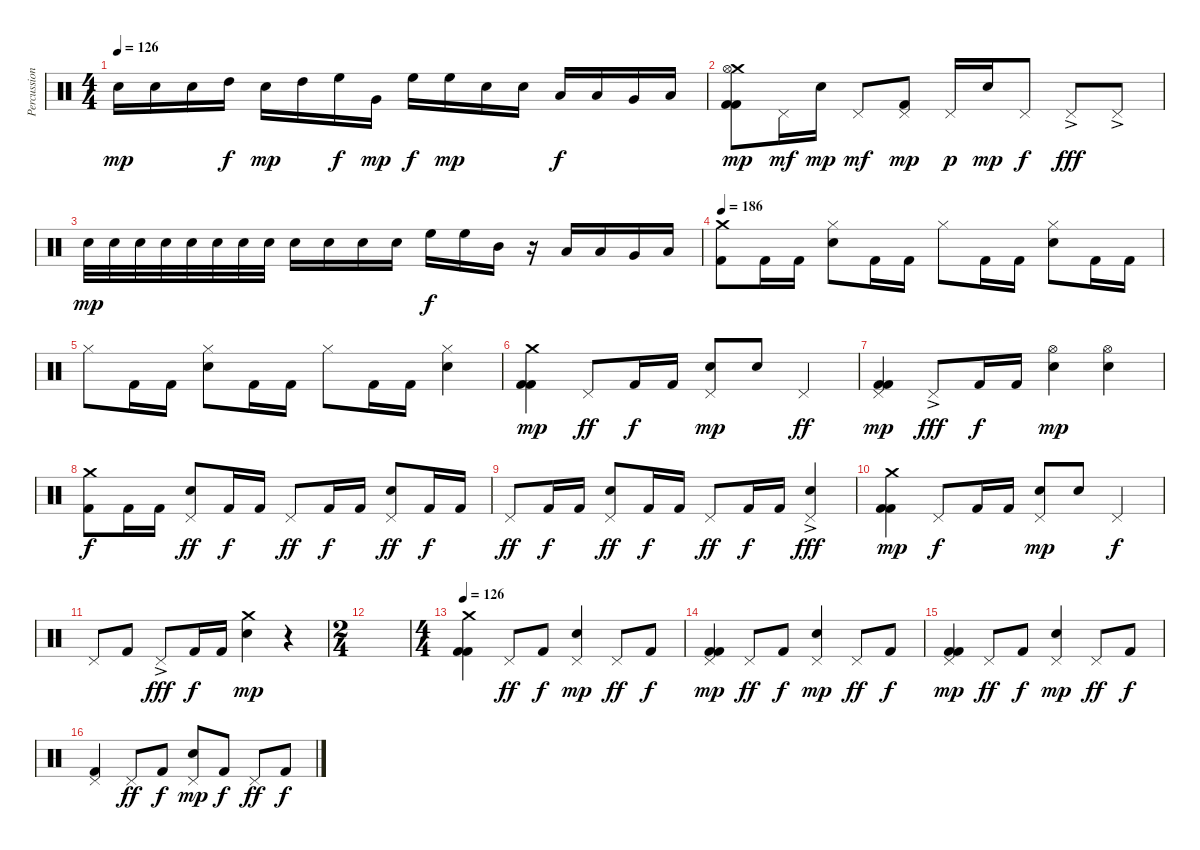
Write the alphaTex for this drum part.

\track ("Percussion" "Percussion") {instrument percussion}
\staff {score}
\articulation defaults
\ts (4 4)
\tempo 126
\clef neutral
\ks c "Electric Snare (hit)".16{dy mp} "Electric Snare (hit)".16 "Electric Snare (hit)".16 "High Tom (hit)".16{dy f} "Electric Snare (hit)".16{dy mp} "High Tom (hit)".16 "High Floor Tom (hit)".16{dy f} "Very Low Tom (hit)".16{dy mp} "High Floor Tom (hit)".16{dy f} "High Floor Tom (hit)".16{dy mp} "Electric Snare (hit)".16 "Electric Snare (hit)".16 "Low Tom (hit)".16{dy f} "Low Tom (hit)".16 "Very Low Tom (hit)".16 "Low Floor Tom (hit)".16
|
("Crash medium (hit)" "Hi-Hat (open)" "Kick (hit) 2" "Kick (hit) 2").8{dy mp} "Pedal Hi-Hat (hit)".16{dy mf} "Electric Snare (hit)".16{dy mp} "Pedal Hi-Hat (hit)".8{dy mf} ("Pedal Hi-Hat (hit)" "Kick (hit) 2").8{dy mp} "Pedal Hi-Hat (hit)".16{dy p} "Electric Snare (hit)".16{dy mp} "Pedal Hi-Hat (hit)".8{dy f} "Pedal Hi-Hat (hit)"{ac}.8{dy fff} "Pedal Hi-Hat (hit)"{ac}.8 |
"Electric Snare (hit)".32{dy mp} "Electric Snare (hit)".32 "Electric Snare (hit)".32 "Electric Snare (hit)".32 "Electric Snare (hit)".32 "Electric Snare (hit)".32 "Electric Snare (hit)".32 "Electric Snare (hit)".32 "Electric Snare (hit)".16 "Electric Snare (hit)".16 "Electric Snare (hit)".16 "Electric Snare (hit)".16 "High Floor Tom (hit)".16{dy f} "High Floor Tom (hit)".16 "Mid Tom (hit)".16 r.16 "Low Tom (hit)".16 "Low Tom (hit)".16 "Very Low Tom (hit)".16 "Low Floor Tom (hit)".16 |
\tempo 186
("Crash medium (hit)" "Kick (hit) 2").8 "Kick (hit) 2".16 "Kick (hit) 2".16 ("Hi-Hat (closed)" "Electric Snare (hit)").8 "Kick (hit) 2".16 "Kick (hit) 2".16 "Hi-Hat (closed)".8 "Kick (hit) 2".16 "Kick (hit) 2".16 ("Hi-Hat (closed)" "Electric Snare (hit)").8 "Kick (hit) 2".16 "Kick (hit) 2".16 |
"Hi-Hat (closed)".8 "Kick (hit) 2".16 "Kick (hit) 2".16 ("Hi-Hat (closed)" "Electric Snare (hit)").8 "Kick (hit) 2".16 "Kick (hit) 2".16 "Hi-Hat (closed)".8 "Kick (hit) 2".16 "Kick (hit) 2".16 ("Hi-Hat (closed)" "Electric Snare (hit)").4 |
("Crash medium (hit)" "Kick (hit) 2" "Kick (hit) 2").4{dy mp} "Pedal Hi-Hat (hit)".8{dy ff} "Kick (hit) 2".16{dy f} "Kick (hit) 2".16 ("Pedal Hi-Hat (hit)" "Electric Snare (hit)").8{dy mp} "Electric Snare (hit)".8 "Pedal Hi-Hat (hit)".4{dy ff} |
("Pedal Hi-Hat (hit)" "Kick (hit) 2" "Kick (hit) 2").4{dy mp} "Pedal Hi-Hat (hit)"{ac}.8{dy fff} "Kick (hit) 2".16{dy f} "Kick (hit) 2".16 ("Hi-Hat (open)" "Electric Snare (hit)").4{dy mp} ("Hi-Hat (open)" "Electric Snare (hit)").4 |
("Crash medium (hit)" "Kick (hit) 2").8{dy f} "Kick (hit) 2".16 "Kick (hit) 2".16 ("Pedal Hi-Hat (hit)" "Electric Snare (hit)").8{dy ff} "Kick (hit) 2".16{dy f} "Kick (hit) 2".16 "Pedal Hi-Hat (hit)".8{dy ff} "Kick (hit) 2".16{dy f} "Kick (hit) 2".16 ("Pedal Hi-Hat (hit)" "Electric Snare (hit)").8{dy ff} "Kick (hit) 2".16{dy f} "Kick (hit) 2".16 |
"Pedal Hi-Hat (hit)".8{dy ff} "Kick (hit) 2".16{dy f} "Kick (hit) 2".16 ("Pedal Hi-Hat (hit)" "Electric Snare (hit)").8{dy ff} "Kick (hit) 2".16{dy f} "Kick (hit) 2".16 "Pedal Hi-Hat (hit)".8{dy ff} "Kick (hit) 2".16{dy f} "Kick (hit) 2".16 ("Pedal Hi-Hat (hit)"{ac} "Electric Snare (hit)").4{dy fff} |
("Crash medium (hit)" "Kick (hit) 2" "Kick (hit) 2").4{dy mp} "Pedal Hi-Hat (hit)".8{dy f} "Kick (hit) 2".16 "Kick (hit) 2".16 ("Pedal Hi-Hat (hit)" "Electric Snare (hit)").8{dy mp} "Electric Snare (hit)".8 "Pedal Hi-Hat (hit)".4{dy f} |
"Pedal Hi-Hat (hit)".8 "Kick (hit) 2".8 "Pedal Hi-Hat (hit)"{ac}.8{dy fff} "Kick (hit) 2".16{dy f} "Kick (hit) 2".16 ("Crash medium (hit)" "Electric Snare (hit)").4{dy mp} r.4 |
\ts (2 4)
|
\ts (4 4)
\tempo 126
("Crash medium (hit)" "Kick (hit) 2" "Kick (hit) 2").4 "Pedal Hi-Hat (hit)".8{dy ff} "Kick (hit) 2".8{dy f} ("Pedal Hi-Hat (hit)" "Electric Snare (hit)").4{dy mp} "Pedal Hi-Hat (hit)".8{dy ff} "Kick (hit) 2".8{dy f} |
("Pedal Hi-Hat (hit)" "Kick (hit) 2" "Kick (hit) 2").4{dy mp} "Pedal Hi-Hat (hit)".8{dy ff} "Kick (hit) 2".8{dy f} ("Pedal Hi-Hat (hit)" "Electric Snare (hit)").4{dy mp} "Pedal Hi-Hat (hit)".8{dy ff} "Kick (hit) 2".8{dy f} |
("Pedal Hi-Hat (hit)" "Kick (hit) 2" "Kick (hit) 2").4{dy mp} "Pedal Hi-Hat (hit)".8{dy ff} "Kick (hit) 2".8{dy f} ("Pedal Hi-Hat (hit)" "Electric Snare (hit)").4{dy mp} "Pedal Hi-Hat (hit)".8{dy ff} "Kick (hit) 2".8{dy f} |
("Pedal Hi-Hat (hit)" "Kick (hit) 2").4 "Pedal Hi-Hat (hit)".8{dy ff} "Kick (hit) 2".8{dy f} ("Pedal Hi-Hat (hit)" "Electric Snare (hit)").8{dy mp} "Kick (hit) 2".8{dy f} "Pedal Hi-Hat (hit)".8{dy ff} "Kick (hit) 2".8{dy f}
